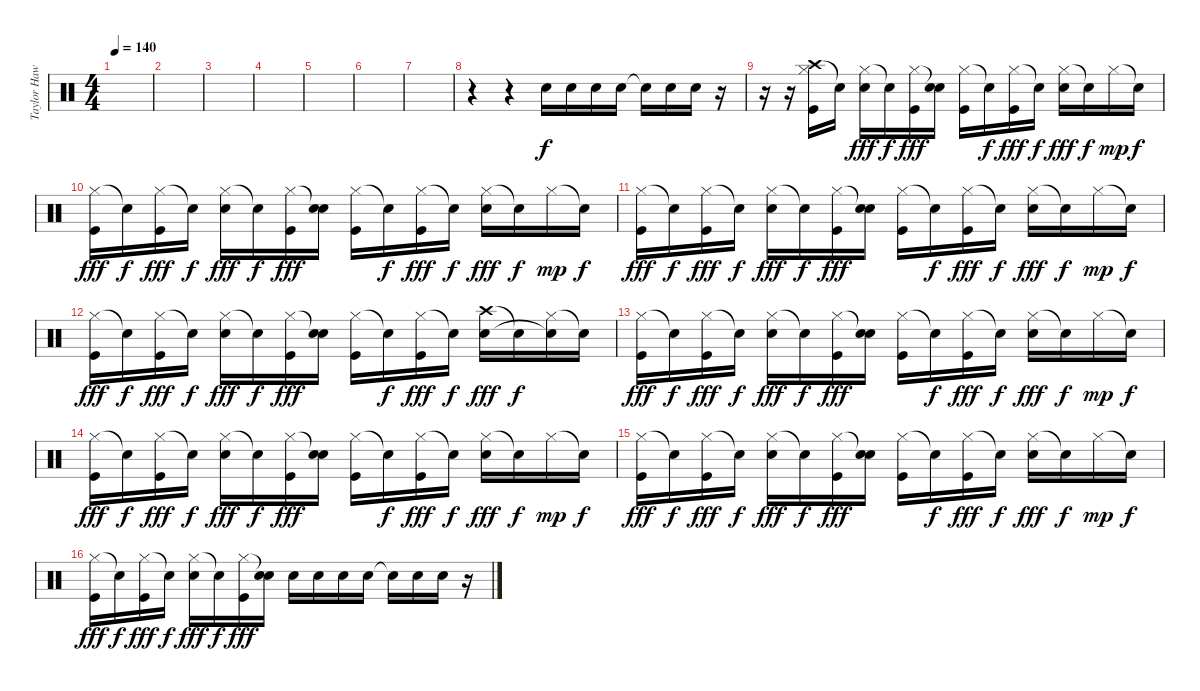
\track ("Taylor Hawkings (Batería)" "Taylor Haw") {instrument percussion}
\staff {score}
\articulation defaults
\ts (4 4)
\tempo 140
\clef neutral
\ks c
|
|
|
|
|
|
|
r.4 r.4 "Electric Snare (hit)".16 "Electric Snare (hit)".16 "Electric Snare (hit)".16 "Electric Snare (hit)".16 "Snare (hit)"{t}.16 "Electric Snare (hit)".16 "Electric Snare (hit)".16 r.16 |
r.16 r.16 ("Crash high (hit)" "Hi-Hat (closed)" "Kick (hit)").16 "Snare (hit)"{t}.16{dy f} ("Hi-Hat (closed)" "Electric Snare (hit)").16{dy fff} "Snare (hit)"{t}.16{dy f} ("Hi-Hat (closed)" "Kick (hit)").16{dy fff} ("Snare (hit)"{t} "Electric Snare (hit)").16 ("Hi-Hat (closed)" "Kick (hit)").16 "Snare (hit)"{t}.16{dy f} ("Hi-Hat (closed)" "Kick (hit)").16{dy fff} "Snare (hit)"{t}.16{dy f} ("Hi-Hat (closed)" "Electric Snare (hit)").16{dy fff} "Snare (hit)"{t}.16{dy f} "Hi-Hat (closed)".16{dy mp} "Snare (hit)"{t}.16{dy f} |
("Hi-Hat (closed)" "Kick (hit)").16{dy fff} "Snare (hit)"{t}.16{dy f} ("Hi-Hat (closed)" "Kick (hit)").16{dy fff} "Snare (hit)"{t}.16{dy f} ("Hi-Hat (closed)" "Electric Snare (hit)").16{dy fff} "Snare (hit)"{t}.16{dy f} ("Hi-Hat (closed)" "Kick (hit)").16{dy fff} ("Snare (hit)"{t} "Electric Snare (hit)").16 ("Hi-Hat (closed)" "Kick (hit)").16 "Snare (hit)"{t}.16{dy f} ("Hi-Hat (closed)" "Kick (hit)").16{dy fff} "Snare (hit)"{t}.16{dy f} ("Hi-Hat (closed)" "Electric Snare (hit)").16{dy fff} "Snare (hit)"{t}.16{dy f} "Hi-Hat (closed)".16{dy mp} "Snare (hit)"{t}.16{dy f} |
("Hi-Hat (closed)" "Kick (hit)").16{dy fff} "Snare (hit)"{t}.16{dy f} ("Hi-Hat (closed)" "Kick (hit)").16{dy fff} "Snare (hit)"{t}.16{dy f} ("Hi-Hat (closed)" "Electric Snare (hit)").16{dy fff} "Snare (hit)"{t}.16{dy f} ("Hi-Hat (closed)" "Kick (hit)").16{dy fff} ("Snare (hit)"{t} "Electric Snare (hit)").16 ("Hi-Hat (closed)" "Kick (hit)").16 "Snare (hit)"{t}.16{dy f} ("Hi-Hat (closed)" "Kick (hit)").16{dy fff} "Snare (hit)"{t}.16{dy f} ("Hi-Hat (closed)" "Electric Snare (hit)").16{dy fff} "Snare (hit)"{t}.16{dy f} "Hi-Hat (closed)".16{dy mp} "Snare (hit)"{t}.16{dy f} |
("Hi-Hat (closed)" "Kick (hit)").16{dy fff} "Snare (hit)"{t}.16{dy f} ("Hi-Hat (closed)" "Kick (hit)").16{dy fff} "Snare (hit)"{t}.16{dy f} ("Hi-Hat (closed)" "Electric Snare (hit)").16{dy fff} "Snare (hit)"{t}.16{dy f} ("Hi-Hat (closed)" "Kick (hit)").16{dy fff} ("Snare (hit)"{t} "Electric Snare (hit)").16 ("Hi-Hat (closed)" "Kick (hit)").16 "Snare (hit)"{t}.16{dy f} ("Hi-Hat (closed)" "Kick (hit)").16{dy fff} "Snare (hit)"{t}.16{dy f} ("Crash high (hit)" "Electric Snare (hit)").16{dy fff} "Snare (hit)"{t}.16{dy f} ("Hi-Hat (closed)" "Snare (hit)"{t}).16 "Snare (hit)"{t}.16 |
("Hi-Hat (closed)" "Kick (hit)").16{dy fff} "Snare (hit)"{t}.16{dy f} ("Hi-Hat (closed)" "Kick (hit)").16{dy fff} "Snare (hit)"{t}.16{dy f} ("Hi-Hat (closed)" "Electric Snare (hit)").16{dy fff} "Snare (hit)"{t}.16{dy f} ("Hi-Hat (closed)" "Kick (hit)").16{dy fff} ("Snare (hit)"{t} "Electric Snare (hit)").16 ("Hi-Hat (closed)" "Kick (hit)").16 "Snare (hit)"{t}.16{dy f} ("Hi-Hat (closed)" "Kick (hit)").16{dy fff} "Snare (hit)"{t}.16{dy f} ("Hi-Hat (closed)" "Electric Snare (hit)").16{dy fff} "Snare (hit)"{t}.16{dy f} "Hi-Hat (closed)".16{dy mp} "Snare (hit)"{t}.16{dy f} |
("Hi-Hat (closed)" "Kick (hit)").16{dy fff} "Snare (hit)"{t}.16{dy f} ("Hi-Hat (closed)" "Kick (hit)").16{dy fff} "Snare (hit)"{t}.16{dy f} ("Hi-Hat (closed)" "Electric Snare (hit)").16{dy fff} "Snare (hit)"{t}.16{dy f} ("Hi-Hat (closed)" "Kick (hit)").16{dy fff} ("Snare (hit)"{t} "Electric Snare (hit)").16 ("Hi-Hat (closed)" "Kick (hit)").16 "Snare (hit)"{t}.16{dy f} ("Hi-Hat (closed)" "Kick (hit)").16{dy fff} "Snare (hit)"{t}.16{dy f} ("Hi-Hat (closed)" "Electric Snare (hit)").16{dy fff} "Snare (hit)"{t}.16{dy f} "Hi-Hat (closed)".16{dy mp} "Snare (hit)"{t}.16{dy f} |
("Hi-Hat (closed)" "Kick (hit)").16{dy fff} "Snare (hit)"{t}.16{dy f} ("Hi-Hat (closed)" "Kick (hit)").16{dy fff} "Snare (hit)"{t}.16{dy f} ("Hi-Hat (closed)" "Electric Snare (hit)").16{dy fff} "Snare (hit)"{t}.16{dy f} ("Hi-Hat (closed)" "Kick (hit)").16{dy fff} ("Snare (hit)"{t} "Electric Snare (hit)").16 ("Hi-Hat (closed)" "Kick (hit)").16 "Snare (hit)"{t}.16{dy f} ("Hi-Hat (closed)" "Kick (hit)").16{dy fff} "Snare (hit)"{t}.16{dy f} ("Hi-Hat (closed)" "Electric Snare (hit)").16{dy fff} "Snare (hit)"{t}.16{dy f} "Hi-Hat (closed)".16{dy mp} "Snare (hit)"{t}.16{dy f} |
("Hi-Hat (closed)" "Kick (hit)").16{dy fff} "Snare (hit)"{t}.16{dy f} ("Hi-Hat (closed)" "Kick (hit)").16{dy fff} "Snare (hit)"{t}.16{dy f} ("Hi-Hat (closed)" "Electric Snare (hit)").16{dy fff} "Snare (hit)"{t}.16{dy f} ("Hi-Hat (closed)" "Kick (hit)").16{dy fff} ("Snare (hit)"{t} "Electric Snare (hit)").16 "Electric Snare (hit)".16 "Electric Snare (hit)".16 "Electric Snare (hit)".16 "Electric Snare (hit)".16 "Snare (hit)"{t}.16 "Electric Snare (hit)".16 "Electric Snare (hit)".16 r.16
